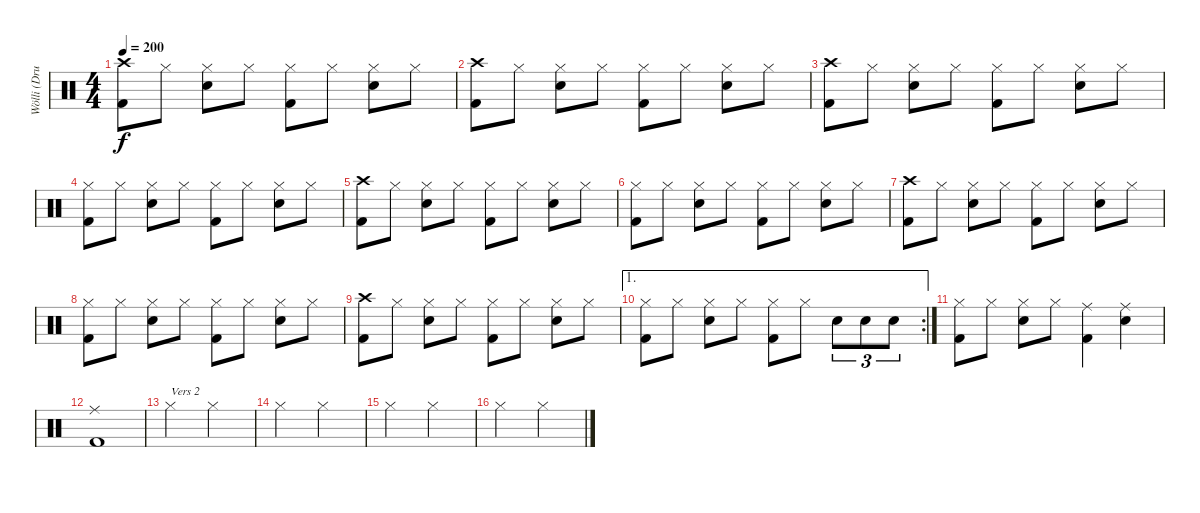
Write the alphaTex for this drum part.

\track ("Wölli (Drums)" "Wölli (Dru") {instrument percussion}
\staff {score}
\articulation defaults
\ts (4 4)
\tempo 200
\clef neutral
\ks c
("Crash high (hit)" "Kick (hit) 2").8{dy f} "Hi-Hat (closed)".8 ("Hi-Hat (closed)" "Snare (hit) 2").8 "Hi-Hat (closed)".8 ("Hi-Hat (closed)" "Kick (hit) 2").8 "Hi-Hat (closed)".8 ("Hi-Hat (closed)" "Snare (hit) 2").8 "Hi-Hat (closed)".8 |
("Crash high (hit)" "Kick (hit) 2").8 "Hi-Hat (closed)".8 ("Hi-Hat (closed)" "Snare (hit) 2").8 "Hi-Hat (closed)".8 ("Hi-Hat (closed)" "Kick (hit) 2").8 "Hi-Hat (closed)".8 ("Hi-Hat (closed)" "Snare (hit) 2").8 "Hi-Hat (closed)".8 |
("Crash high (hit)" "Kick (hit) 2").8 "Hi-Hat (closed)".8 ("Hi-Hat (closed)" "Snare (hit) 2").8 "Hi-Hat (closed)".8 ("Hi-Hat (closed)" "Kick (hit) 2").8 "Hi-Hat (closed)".8 ("Hi-Hat (closed)" "Snare (hit) 2").8 "Hi-Hat (closed)".8 |
("Hi-Hat (closed)" "Kick (hit) 2").8 "Hi-Hat (closed)".8 ("Hi-Hat (closed)" "Snare (hit) 2").8 "Hi-Hat (closed)".8 ("Hi-Hat (closed)" "Kick (hit) 2").8 "Hi-Hat (closed)".8 ("Hi-Hat (closed)" "Snare (hit) 2").8 "Hi-Hat (closed)".8 |
("Crash high (hit)" "Kick (hit) 2").8 "Hi-Hat (closed)".8 ("Hi-Hat (closed)" "Snare (hit) 2").8 "Hi-Hat (closed)".8 ("Hi-Hat (closed)" "Kick (hit) 2").8 "Hi-Hat (closed)".8 ("Hi-Hat (closed)" "Snare (hit) 2").8 "Hi-Hat (closed)".8 |
("Hi-Hat (closed)" "Kick (hit) 2").8 "Hi-Hat (closed)".8 ("Hi-Hat (closed)" "Snare (hit) 2").8 "Hi-Hat (closed)".8 ("Hi-Hat (closed)" "Kick (hit) 2").8 "Hi-Hat (closed)".8 ("Hi-Hat (closed)" "Snare (hit) 2").8 "Hi-Hat (closed)".8 |
("Crash high (hit)" "Kick (hit) 2").8 "Hi-Hat (closed)".8 ("Hi-Hat (closed)" "Snare (hit) 2").8 "Hi-Hat (closed)".8 ("Hi-Hat (closed)" "Kick (hit) 2").8 "Hi-Hat (closed)".8 ("Hi-Hat (closed)" "Snare (hit) 2").8 "Hi-Hat (closed)".8 |
("Hi-Hat (closed)" "Kick (hit) 2").8 "Hi-Hat (closed)".8 ("Hi-Hat (closed)" "Snare (hit) 2").8 "Hi-Hat (closed)".8 ("Hi-Hat (closed)" "Kick (hit) 2").8 "Hi-Hat (closed)".8 ("Hi-Hat (closed)" "Snare (hit) 2").8 "Hi-Hat (closed)".8 |
("Crash high (hit)" "Kick (hit) 2").8 "Hi-Hat (closed)".8 ("Hi-Hat (closed)" "Snare (hit) 2").8 "Hi-Hat (closed)".8 ("Hi-Hat (closed)" "Kick (hit) 2").8 "Hi-Hat (closed)".8 ("Hi-Hat (closed)" "Snare (hit) 2").8 "Hi-Hat (closed)".8 |
\ae 1
\rc 2
("Hi-Hat (closed)" "Kick (hit) 2").8 "Hi-Hat (closed)".8 ("Hi-Hat (closed)" "Snare (hit) 2").8 "Hi-Hat (closed)".8 ("Hi-Hat (closed)" "Kick (hit) 2").8 "Hi-Hat (closed)".8 "Snare (hit) 2".8{tu (3 2)} "Snare (hit) 2".8{tu (3 2)} "Snare (hit) 2".8{tu (3 2)} |
("Hi-Hat (closed)" "Kick (hit) 2").8 "Hi-Hat (closed)".8 ("Hi-Hat (closed)" "Snare (hit) 2").8 "Hi-Hat (closed)".8 ("Ride (middle)" "Kick (hit) 2").4 ("Ride (middle)" "Snare (hit) 2").4 |
("Ride (middle)" "Kick (hit) 2").1 |
"Hi-Hat (closed)".2{txt "Vers 2"} "Hi-Hat (closed)".2 |
"Hi-Hat (closed)".2 "Hi-Hat (closed)".2 |
"Hi-Hat (closed)".2 "Hi-Hat (closed)".2 |
"Hi-Hat (closed)".2 "Hi-Hat (closed)".2
